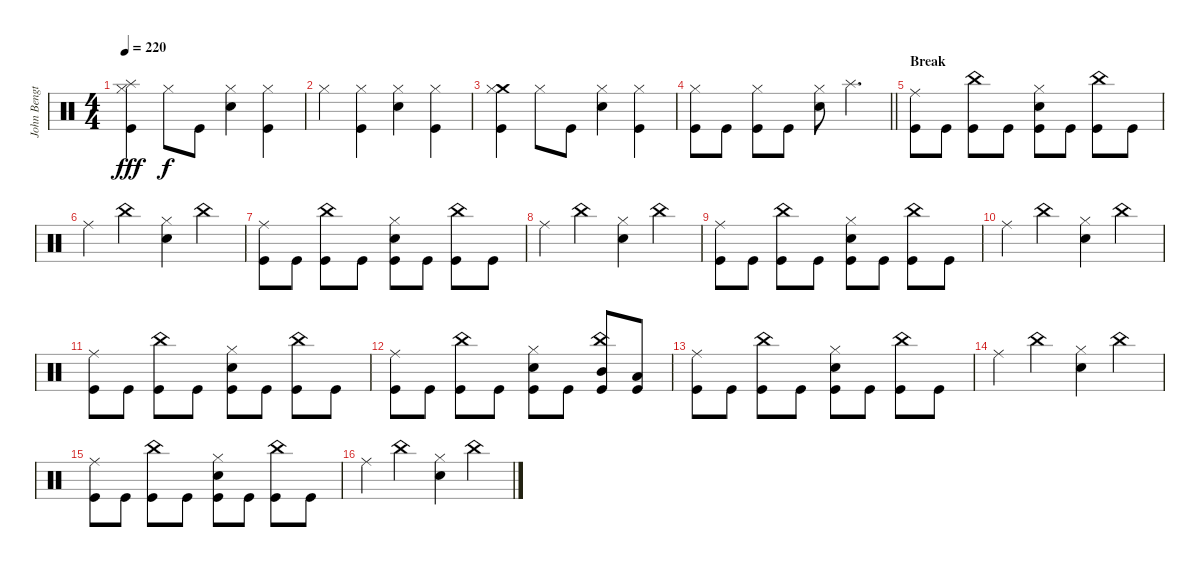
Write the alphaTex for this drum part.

\track ("John Bengtsson" "John Bengt") {instrument percussion}
\staff {score}
\articulation defaults
\ts (4 4)
\tempo 220
\clef neutral
\ks c
("Splash (hit)" "Hi-Hat (closed)" "Kick (hit)").4{dy fff} "Hi-Hat (closed)".8{dy f} "Kick (hit)".8 ("Hi-Hat (closed)" "Snare (hit) 2").4 ("Hi-Hat (closed)" "Kick (hit)").4 |
"Hi-Hat (closed)".4 ("Hi-Hat (closed)" "Kick (hit)").4 ("Hi-Hat (closed)" "Snare (hit) 2").4 ("Hi-Hat (closed)" "Kick (hit)").4 |
("Crash medium (hit)" "Hi-Hat (closed)" "Kick (hit)").4 "Hi-Hat (closed)".8 "Kick (hit)".8 ("Hi-Hat (closed)" "Snare (hit) 2").4 ("Hi-Hat (closed)" "Kick (hit)").4 |
\barLineRight lightlight
("Hi-Hat (closed)" "Kick (hit)").8 "Kick (hit)".8 ("Hi-Hat (closed)" "Kick (hit)").8 "Kick (hit)".8 ("Hi-Hat (closed)" "Snare (hit) 2").8 "Splash (hit)".4{d} |
\section ("" "Break")
("Ride (middle)" "Kick (hit)").8 "Kick (hit)".8 ("China (hit)" "Kick (hit)").8 "Kick (hit)".8 ("Hi-Hat (closed)" "Snare (hit) 2" "Kick (hit)").8 "Kick (hit)".8 ("China (hit)" "Kick (hit)").8 "Kick (hit)".8 |
"Ride (middle)".4 "China (hit)".4 ("Hi-Hat (closed)" "Snare (hit) 2").4 "China (hit)".4 |
("Ride (middle)" "Kick (hit)").8 "Kick (hit)".8 ("China (hit)" "Kick (hit)").8 "Kick (hit)".8 ("Hi-Hat (closed)" "Snare (hit) 2" "Kick (hit)").8 "Kick (hit)".8 ("China (hit)" "Kick (hit)").8 "Kick (hit)".8 |
"Ride (middle)".4 "China (hit)".4 ("Hi-Hat (closed)" "Snare (hit) 2").4 "China (hit)".4 |
("Ride (middle)" "Kick (hit)").8 "Kick (hit)".8 ("China (hit)" "Kick (hit)").8 "Kick (hit)".8 ("Hi-Hat (closed)" "Snare (hit) 2" "Kick (hit)").8 "Kick (hit)".8 ("China (hit)" "Kick (hit)").8 "Kick (hit)".8 |
"Ride (middle)".4 "China (hit)".4 ("Hi-Hat (closed)" "Snare (hit) 2").4 "China (hit)".4 |
("Ride (middle)" "Kick (hit)").8 "Kick (hit)".8 ("China (hit)" "Kick (hit)").8 "Kick (hit)".8 ("Hi-Hat (closed)" "Snare (hit) 2" "Kick (hit)").8 "Kick (hit)".8 ("China (hit)" "Kick (hit)").8 "Kick (hit)".8 |
("Ride (middle)" "Kick (hit)").8 "Kick (hit)".8 ("China (hit)" "Kick (hit)").8 "Kick (hit)".8 ("Hi-Hat (closed)" "Snare (hit) 2" "Kick (hit)").8 "Kick (hit)".8 ("China (hit)" "Mid Tom (hit)" "Kick (hit)").8 ("Low Tom (hit)" "Kick (hit)").8 |
("Ride (middle)" "Kick (hit)").8 "Kick (hit)".8 ("China (hit)" "Kick (hit)").8 "Kick (hit)".8 ("Hi-Hat (closed)" "Snare (hit) 2" "Kick (hit)").8 "Kick (hit)".8 ("China (hit)" "Kick (hit)").8 "Kick (hit)".8 |
"Ride (middle)".4 "China (hit)".4 ("Hi-Hat (closed)" "Snare (hit) 2").4 "China (hit)".4 |
("Ride (middle)" "Kick (hit)").8 "Kick (hit)".8 ("China (hit)" "Kick (hit)").8 "Kick (hit)".8 ("Hi-Hat (closed)" "Snare (hit) 2" "Kick (hit)").8 "Kick (hit)".8 ("China (hit)" "Kick (hit)").8 "Kick (hit)".8 |
"Ride (middle)".4 "China (hit)".4 ("Hi-Hat (closed)" "Snare (hit) 2").4 "China (hit)".4
